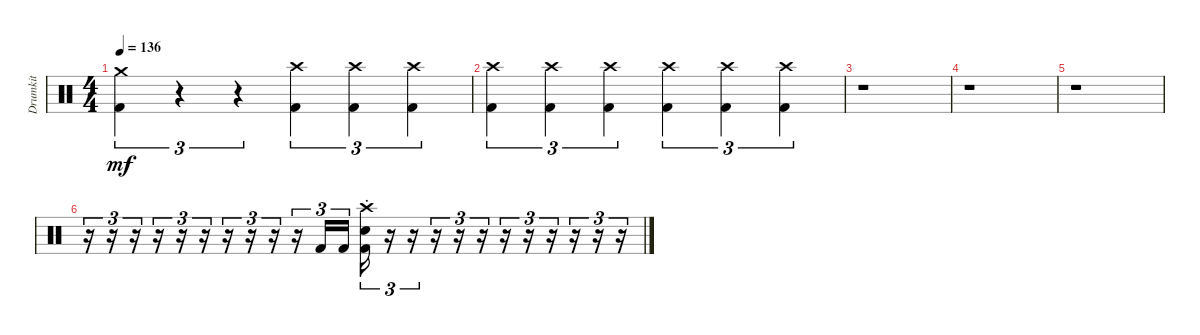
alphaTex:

\track ("Drumkit" "Drumkit") {instrument percussion}
\staff {score}
\articulation defaults
\ts (4 4)
\tempo 136
\clef neutral
\ks c
("Kick (hit) 2" "Crash medium (hit)").4{tu (3 2) dy mf} r.4{tu (3 2)} r.4{tu (3 2)} ("Kick (hit) 2" "Crash high (hit)").4{tu (3 2)} ("Kick (hit) 2" "Crash high (hit)").4{tu (3 2)} ("Kick (hit) 2" "Crash high (hit)").4{tu (3 2)} |
("Kick (hit) 2" "Crash high (hit)").4{tu (3 2)} ("Kick (hit) 2" "Crash high (hit)").4{tu (3 2)} ("Kick (hit) 2" "Crash high (hit)").4{tu (3 2)} ("Kick (hit) 2" "Crash high (hit)").4{tu (3 2)} ("Kick (hit) 2" "Crash high (hit)").4{tu (3 2)} ("Kick (hit) 2" "Crash high (hit)").4{tu (3 2)} |
r.1 |
r.1 |
r.1 |
r.16{tu (3 2)} r.16{tu (3 2)} r.16{tu (3 2)} r.16{tu (3 2)} r.16{tu (3 2)} r.16{tu (3 2)} r.16{tu (3 2)} r.16{tu (3 2)} r.16{tu (3 2)} r.16{tu (3 2)} "Kick (hit) 2".16{tu (3 2)} "Kick (hit) 2".16{tu (3 2)} ("Snare (hit) 2" "Crash high (choke)" "Kick (hit) 2").16{tu (3 2)} r.16{tu (3 2)} r.16{tu (3 2)} r.16{tu (3 2)} r.16{tu (3 2)} r.16{tu (3 2)} r.16{tu (3 2)} r.16{tu (3 2)} r.16{tu (3 2)} r.16{tu (3 2)} r.16{tu (3 2)} r.16{tu (3 2)}
